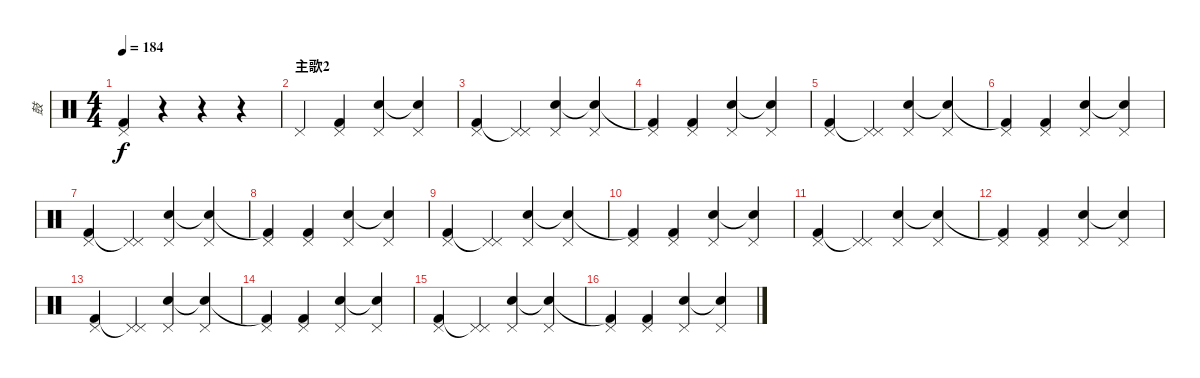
\track ("鼓" "鼓") {instrument percussion}
\staff {score}
\articulation defaults
\ts (4 4)
\tempo 184
\clef neutral
\ks c
("Pedal Hi-Hat (hit)" "Kick (hit) 2").4{dy f} r.4 r.4 r.4 |
\section ("" "主歌2")
"Pedal Hi-Hat (hit)".4 ("Pedal Hi-Hat (hit)" "Kick (hit) 2").4 ("Pedal Hi-Hat (hit)" "Electric Snare (hit)").4 ("Pedal Hi-Hat (hit)" "Snare (hit)"{t}).4 |
("Pedal Hi-Hat (hit)" "Kick (hit) 2").4 ("Pedal Hi-Hat (hit)" "Pedal Hi-Hat (hit)"{t}).4 ("Pedal Hi-Hat (hit)" "Electric Snare (hit)").4 ("Pedal Hi-Hat (hit)" "Snare (hit)"{t}).4 |
("Pedal Hi-Hat (hit)" "Kick (hit) 2"{t}).4 ("Pedal Hi-Hat (hit)" "Kick (hit) 2").4 ("Pedal Hi-Hat (hit)" "Electric Snare (hit)").4 ("Pedal Hi-Hat (hit)" "Snare (hit)"{t}).4 |
("Pedal Hi-Hat (hit)" "Kick (hit) 2").4 ("Pedal Hi-Hat (hit)" "Pedal Hi-Hat (hit)"{t}).4 ("Pedal Hi-Hat (hit)" "Electric Snare (hit)").4 ("Pedal Hi-Hat (hit)" "Snare (hit)"{t}).4 |
("Pedal Hi-Hat (hit)" "Kick (hit) 2"{t}).4 ("Pedal Hi-Hat (hit)" "Kick (hit) 2").4 ("Pedal Hi-Hat (hit)" "Electric Snare (hit)").4 ("Pedal Hi-Hat (hit)" "Snare (hit)"{t}).4 |
("Pedal Hi-Hat (hit)" "Kick (hit) 2").4 ("Pedal Hi-Hat (hit)" "Pedal Hi-Hat (hit)"{t}).4 ("Pedal Hi-Hat (hit)" "Electric Snare (hit)").4 ("Pedal Hi-Hat (hit)" "Snare (hit)"{t}).4 |
("Pedal Hi-Hat (hit)" "Kick (hit) 2"{t}).4 ("Pedal Hi-Hat (hit)" "Kick (hit) 2").4 ("Pedal Hi-Hat (hit)" "Electric Snare (hit)").4 ("Pedal Hi-Hat (hit)" "Snare (hit)"{t}).4 |
("Pedal Hi-Hat (hit)" "Kick (hit) 2").4 ("Pedal Hi-Hat (hit)" "Pedal Hi-Hat (hit)"{t}).4 ("Pedal Hi-Hat (hit)" "Electric Snare (hit)").4 ("Pedal Hi-Hat (hit)" "Snare (hit)"{t}).4 |
("Pedal Hi-Hat (hit)" "Kick (hit) 2"{t}).4 ("Pedal Hi-Hat (hit)" "Kick (hit) 2").4 ("Pedal Hi-Hat (hit)" "Electric Snare (hit)").4 ("Pedal Hi-Hat (hit)" "Snare (hit)"{t}).4 |
("Pedal Hi-Hat (hit)" "Kick (hit) 2").4 ("Pedal Hi-Hat (hit)" "Pedal Hi-Hat (hit)"{t}).4 ("Pedal Hi-Hat (hit)" "Electric Snare (hit)").4 ("Pedal Hi-Hat (hit)" "Snare (hit)"{t}).4 |
("Pedal Hi-Hat (hit)" "Kick (hit) 2"{t}).4 ("Pedal Hi-Hat (hit)" "Kick (hit) 2").4 ("Pedal Hi-Hat (hit)" "Electric Snare (hit)").4 ("Pedal Hi-Hat (hit)" "Snare (hit)"{t}).4 |
("Pedal Hi-Hat (hit)" "Kick (hit) 2").4 ("Pedal Hi-Hat (hit)" "Pedal Hi-Hat (hit)"{t}).4 ("Pedal Hi-Hat (hit)" "Electric Snare (hit)").4 ("Pedal Hi-Hat (hit)" "Snare (hit)"{t}).4 |
("Pedal Hi-Hat (hit)" "Kick (hit) 2"{t}).4 ("Pedal Hi-Hat (hit)" "Kick (hit) 2").4 ("Pedal Hi-Hat (hit)" "Electric Snare (hit)").4 ("Pedal Hi-Hat (hit)" "Snare (hit)"{t}).4 |
("Pedal Hi-Hat (hit)" "Kick (hit) 2").4 ("Pedal Hi-Hat (hit)" "Pedal Hi-Hat (hit)"{t}).4 ("Pedal Hi-Hat (hit)" "Electric Snare (hit)").4 ("Pedal Hi-Hat (hit)" "Snare (hit)"{t}).4 |
("Pedal Hi-Hat (hit)" "Kick (hit) 2"{t}).4 ("Pedal Hi-Hat (hit)" "Kick (hit) 2").4 ("Pedal Hi-Hat (hit)" "Electric Snare (hit)").4 ("Pedal Hi-Hat (hit)" "Snare (hit)"{t}).4
